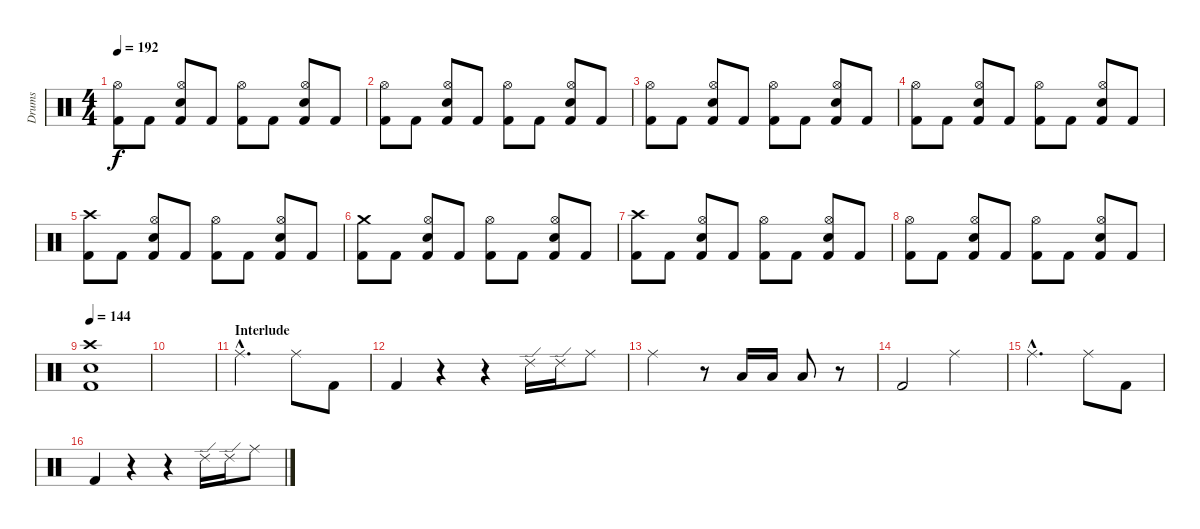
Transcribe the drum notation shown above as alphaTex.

\track ("Drums" "Drums") {instrument percussion}
\staff {score}
\articulation defaults
\ts (4 4)
\tempo 192
\clef neutral
\ks c
("Kick (hit) 2" "Hi-Hat (open)").8{dy f} "Kick (hit) 2".8 ("Kick (hit) 2" "Snare (hit) 2" "Hi-Hat (open)").8 "Kick (hit) 2".8 ("Kick (hit) 2" "Hi-Hat (open)").8 "Kick (hit) 2".8 ("Kick (hit) 2" "Snare (hit) 2" "Hi-Hat (open)").8 "Kick (hit) 2".8 |
("Kick (hit) 2" "Hi-Hat (open)").8 "Kick (hit) 2".8 ("Kick (hit) 2" "Snare (hit) 2" "Hi-Hat (open)").8 "Kick (hit) 2".8 ("Kick (hit) 2" "Hi-Hat (open)").8 "Kick (hit) 2".8 ("Kick (hit) 2" "Snare (hit) 2" "Hi-Hat (open)").8 "Kick (hit) 2".8 |
("Kick (hit) 2" "Hi-Hat (open)").8 "Kick (hit) 2".8 ("Kick (hit) 2" "Snare (hit) 2" "Hi-Hat (open)").8 "Kick (hit) 2".8 ("Kick (hit) 2" "Hi-Hat (open)").8 "Kick (hit) 2".8 ("Kick (hit) 2" "Snare (hit) 2" "Hi-Hat (open)").8 "Kick (hit) 2".8 |
("Kick (hit) 2" "Hi-Hat (open)").8 "Kick (hit) 2".8 ("Kick (hit) 2" "Snare (hit) 2" "Hi-Hat (open)").8 "Kick (hit) 2".8 ("Kick (hit) 2" "Hi-Hat (open)").8 "Kick (hit) 2".8 ("Kick (hit) 2" "Snare (hit) 2" "Hi-Hat (open)").8 "Kick (hit) 2".8 |
("Kick (hit) 2" "Crash high (hit)").8 "Kick (hit) 2".8 ("Kick (hit) 2" "Snare (hit) 2" "Hi-Hat (open)").8 "Kick (hit) 2".8 ("Kick (hit) 2" "Hi-Hat (open)").8 "Kick (hit) 2".8 ("Kick (hit) 2" "Snare (hit) 2" "Hi-Hat (open)").8 "Kick (hit) 2".8 |
("Kick (hit) 2" "Crash medium (hit)").8 "Kick (hit) 2".8 ("Kick (hit) 2" "Snare (hit) 2" "Hi-Hat (open)").8 "Kick (hit) 2".8 ("Kick (hit) 2" "Hi-Hat (open)").8 "Kick (hit) 2".8 ("Kick (hit) 2" "Snare (hit) 2" "Hi-Hat (open)").8 "Kick (hit) 2".8 |
("Kick (hit) 2" "Crash high (hit)").8 "Kick (hit) 2".8 ("Kick (hit) 2" "Snare (hit) 2" "Hi-Hat (open)").8 "Kick (hit) 2".8 ("Kick (hit) 2" "Hi-Hat (open)").8 "Kick (hit) 2".8 ("Kick (hit) 2" "Snare (hit) 2" "Hi-Hat (open)").8 "Kick (hit) 2".8 |
("Kick (hit) 2" "Hi-Hat (open)").8 "Kick (hit) 2".8 ("Kick (hit) 2" "Snare (hit) 2" "Hi-Hat (open)").8 "Kick (hit) 2".8 ("Kick (hit) 2" "Hi-Hat (open)").8 "Kick (hit) 2".8 ("Kick (hit) 2" "Snare (hit) 2" "Hi-Hat (open)").8 "Kick (hit) 2".8 |
\tempo 144
("Kick (hit) 2" "Snare (hit) 2" "Crash high (hit)").1 |
|
\section ("" "Interlude")
"Ride (middle)"{hac}.2{d} "Ride (middle)".8 "Kick (hit) 2".8 |
"Kick (hit) 2".4 r.4 r.4 "Ride (edge) 2".16 "Ride (edge) 2".16 "Ride (middle)".8 |
"Ride (middle)".2 r.8 "Low Tom (hit)".16 "Low Tom (hit)".16 "Low Tom (hit)".8 r.8 |
"Kick (hit) 2".2 "Ride (middle)".2 |
"Ride (middle)"{hac}.2{d} "Ride (middle)".8 "Kick (hit) 2".8 |
"Kick (hit) 2".4 r.4 r.4 "Ride (edge) 2".16 "Ride (edge) 2".16 "Ride (middle)".8
